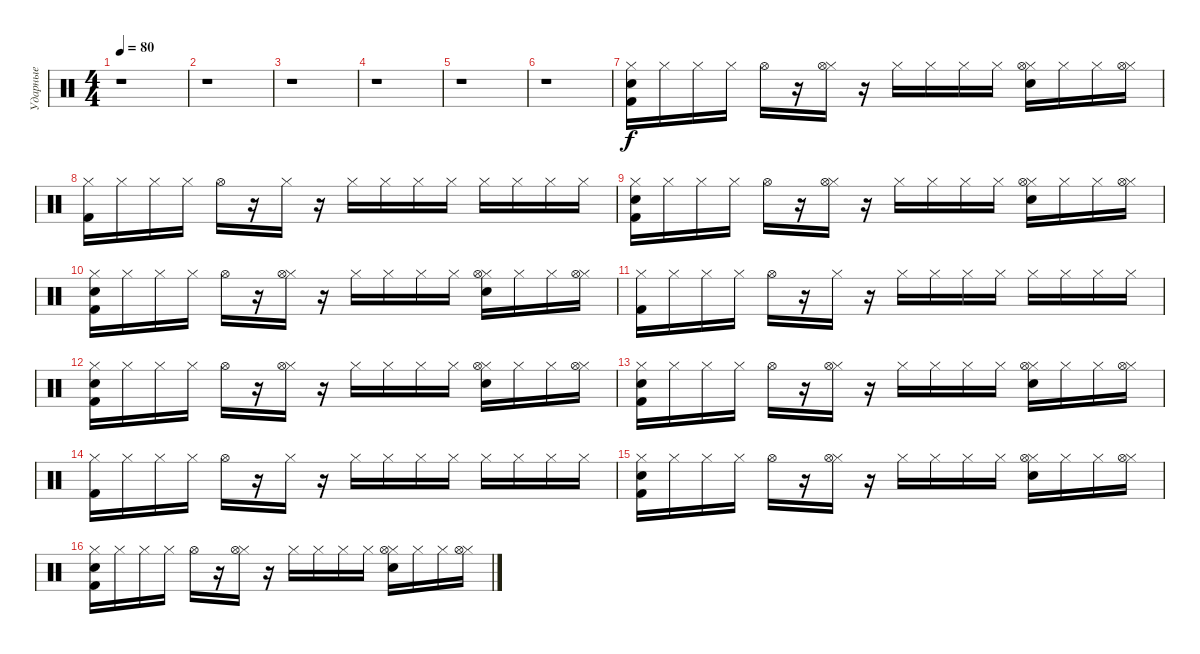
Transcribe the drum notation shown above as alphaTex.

\track ("Ударные" "Ударные") {instrument percussion}
\staff {score}
\articulation defaults
\ts (4 4)
\tempo 80
\clef neutral
\ks c
r.1{dy f} |
r.1 |
r.1 |
r.1 |
r.1 |
r.1 |
("Hi-Hat (closed)" "Kick (hit) 2" "Electric Snare (hit)").16 "Hi-Hat (closed)".16 "Hi-Hat (closed)".16 "Hi-Hat (closed)".16 "Hi-Hat (open)".16 r.16 ("Hi-Hat (closed)" "Hi-Hat (open)").16 r.16 "Hi-Hat (closed)".16 "Hi-Hat (closed)".16 "Hi-Hat (closed)".16 "Hi-Hat (closed)".16 ("Hi-Hat (closed)" "Electric Snare (hit)" "Hi-Hat (open)").16 "Hi-Hat (closed)".16 "Hi-Hat (closed)".16 ("Hi-Hat (closed)" "Hi-Hat (open)").16 |
("Hi-Hat (closed)" "Kick (hit) 2").16 "Hi-Hat (closed)".16 "Hi-Hat (closed)".16 "Hi-Hat (closed)".16 "Hi-Hat (open)".16 r.16 "Hi-Hat (closed)".16 r.16 "Hi-Hat (closed)".16 "Hi-Hat (closed)".16 "Hi-Hat (closed)".16 "Hi-Hat (closed)".16 "Hi-Hat (closed)".16 "Hi-Hat (closed)".16 "Hi-Hat (closed)".16 "Hi-Hat (closed)".16 |
("Hi-Hat (closed)" "Kick (hit) 2" "Electric Snare (hit)").16 "Hi-Hat (closed)".16 "Hi-Hat (closed)".16 "Hi-Hat (closed)".16 "Hi-Hat (open)".16 r.16 ("Hi-Hat (closed)" "Hi-Hat (open)").16 r.16 "Hi-Hat (closed)".16 "Hi-Hat (closed)".16 "Hi-Hat (closed)".16 "Hi-Hat (closed)".16 ("Hi-Hat (closed)" "Electric Snare (hit)" "Hi-Hat (open)").16 "Hi-Hat (closed)".16 "Hi-Hat (closed)".16 ("Hi-Hat (closed)" "Hi-Hat (open)").16 |
("Hi-Hat (closed)" "Kick (hit) 2" "Electric Snare (hit)").16 "Hi-Hat (closed)".16 "Hi-Hat (closed)".16 "Hi-Hat (closed)".16 "Hi-Hat (open)".16 r.16 ("Hi-Hat (closed)" "Hi-Hat (open)").16 r.16 "Hi-Hat (closed)".16 "Hi-Hat (closed)".16 "Hi-Hat (closed)".16 "Hi-Hat (closed)".16 ("Hi-Hat (closed)" "Electric Snare (hit)" "Hi-Hat (open)").16 "Hi-Hat (closed)".16 "Hi-Hat (closed)".16 ("Hi-Hat (closed)" "Hi-Hat (open)").16 |
("Hi-Hat (closed)" "Kick (hit) 2").16 "Hi-Hat (closed)".16 "Hi-Hat (closed)".16 "Hi-Hat (closed)".16 "Hi-Hat (open)".16 r.16 "Hi-Hat (closed)".16 r.16 "Hi-Hat (closed)".16 "Hi-Hat (closed)".16 "Hi-Hat (closed)".16 "Hi-Hat (closed)".16 "Hi-Hat (closed)".16 "Hi-Hat (closed)".16 "Hi-Hat (closed)".16 "Hi-Hat (closed)".16 |
("Hi-Hat (closed)" "Kick (hit) 2" "Electric Snare (hit)").16 "Hi-Hat (closed)".16 "Hi-Hat (closed)".16 "Hi-Hat (closed)".16 "Hi-Hat (open)".16 r.16 ("Hi-Hat (closed)" "Hi-Hat (open)").16 r.16 "Hi-Hat (closed)".16 "Hi-Hat (closed)".16 "Hi-Hat (closed)".16 "Hi-Hat (closed)".16 ("Hi-Hat (closed)" "Electric Snare (hit)" "Hi-Hat (open)").16 "Hi-Hat (closed)".16 "Hi-Hat (closed)".16 ("Hi-Hat (closed)" "Hi-Hat (open)").16 |
("Hi-Hat (closed)" "Kick (hit) 2" "Electric Snare (hit)").16 "Hi-Hat (closed)".16 "Hi-Hat (closed)".16 "Hi-Hat (closed)".16 "Hi-Hat (open)".16 r.16 ("Hi-Hat (closed)" "Hi-Hat (open)").16 r.16 "Hi-Hat (closed)".16 "Hi-Hat (closed)".16 "Hi-Hat (closed)".16 "Hi-Hat (closed)".16 ("Hi-Hat (closed)" "Electric Snare (hit)" "Hi-Hat (open)").16 "Hi-Hat (closed)".16 "Hi-Hat (closed)".16 ("Hi-Hat (closed)" "Hi-Hat (open)").16 |
("Hi-Hat (closed)" "Kick (hit) 2").16 "Hi-Hat (closed)".16 "Hi-Hat (closed)".16 "Hi-Hat (closed)".16 "Hi-Hat (open)".16 r.16 "Hi-Hat (closed)".16 r.16 "Hi-Hat (closed)".16 "Hi-Hat (closed)".16 "Hi-Hat (closed)".16 "Hi-Hat (closed)".16 "Hi-Hat (closed)".16 "Hi-Hat (closed)".16 "Hi-Hat (closed)".16 "Hi-Hat (closed)".16 |
("Hi-Hat (closed)" "Kick (hit) 2" "Electric Snare (hit)").16 "Hi-Hat (closed)".16 "Hi-Hat (closed)".16 "Hi-Hat (closed)".16 "Hi-Hat (open)".16 r.16 ("Hi-Hat (closed)" "Hi-Hat (open)").16 r.16 "Hi-Hat (closed)".16 "Hi-Hat (closed)".16 "Hi-Hat (closed)".16 "Hi-Hat (closed)".16 ("Hi-Hat (closed)" "Electric Snare (hit)" "Hi-Hat (open)").16 "Hi-Hat (closed)".16 "Hi-Hat (closed)".16 ("Hi-Hat (closed)" "Hi-Hat (open)").16 |
("Hi-Hat (closed)" "Kick (hit) 2" "Electric Snare (hit)").16 "Hi-Hat (closed)".16 "Hi-Hat (closed)".16 "Hi-Hat (closed)".16 "Hi-Hat (open)".16 r.16 ("Hi-Hat (closed)" "Hi-Hat (open)").16 r.16 "Hi-Hat (closed)".16 "Hi-Hat (closed)".16 "Hi-Hat (closed)".16 "Hi-Hat (closed)".16 ("Hi-Hat (closed)" "Electric Snare (hit)" "Hi-Hat (open)").16 "Hi-Hat (closed)".16 "Hi-Hat (closed)".16 ("Hi-Hat (closed)" "Hi-Hat (open)").16
